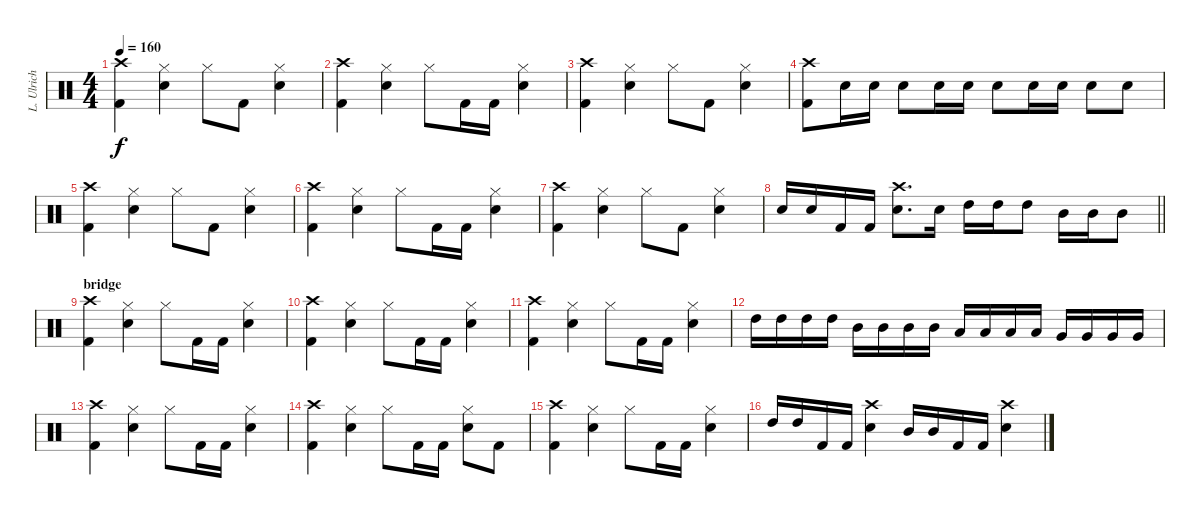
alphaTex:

\track ("L. Ulrich - Drums" "L. Ulrich ") {instrument percussion}
\staff {score}
\articulation defaults
\ts (4 4)
\tempo 160
\clef neutral
\ks c
("Crash high (hit)" "Kick (hit) 2").4{dy f} ("Hi-Hat (closed)" "Snare (hit) 2").4 "Hi-Hat (closed)".8 "Kick (hit) 2".8 ("Hi-Hat (closed)" "Snare (hit) 2").4 |
("Crash high (hit)" "Kick (hit) 2").4 ("Hi-Hat (closed)" "Snare (hit) 2").4 "Hi-Hat (closed)".8 "Kick (hit) 2".16 "Kick (hit) 2".16 ("Hi-Hat (closed)" "Snare (hit) 2").4 |
("Crash high (hit)" "Kick (hit) 2").4 ("Hi-Hat (closed)" "Snare (hit) 2").4 "Hi-Hat (closed)".8 "Kick (hit) 2".8 ("Hi-Hat (closed)" "Snare (hit) 2").4 |
("Crash high (hit)" "Kick (hit) 2").8 "Snare (hit) 2".16 "Snare (hit) 2".16 "Snare (hit) 2".8 "Snare (hit) 2".16 "Snare (hit) 2".16 "Snare (hit) 2".8 "Snare (hit) 2".16 "Snare (hit) 2".16 "Snare (hit) 2".8 "Snare (hit) 2".8 |
("Crash high (hit)" "Kick (hit) 2").4 ("Hi-Hat (closed)" "Snare (hit) 2").4 "Hi-Hat (closed)".8 "Kick (hit) 2".8 ("Hi-Hat (closed)" "Snare (hit) 2").4 |
("Crash high (hit)" "Kick (hit) 2").4 ("Hi-Hat (closed)" "Snare (hit) 2").4 "Hi-Hat (closed)".8 "Kick (hit) 2".16 "Kick (hit) 2".16 ("Hi-Hat (closed)" "Snare (hit) 2").4 |
("Crash high (hit)" "Kick (hit) 2").4 ("Hi-Hat (closed)" "Snare (hit) 2").4 "Hi-Hat (closed)".8 "Kick (hit) 2".8 ("Hi-Hat (closed)" "Snare (hit) 2").4 |
\barLineRight lightlight "Snare (hit) 2".16 "Snare (hit) 2".16 "Kick (hit) 2".16 "Kick (hit) 2".16
("Crash high (hit)" "Snare (hit) 2").8{d} "Snare (hit) 2".16 "High Tom (hit)".16 "High Tom (hit)".16 "High Tom (hit)".8 "Mid Tom (hit)".16 "Mid Tom (hit)".16 "Mid Tom (hit)".8 |
\section ("" "bridge")
("Crash high (hit)" "Kick (hit) 2").4 ("Hi-Hat (closed)" "Snare (hit) 2").4 "Hi-Hat (closed)".8 "Kick (hit) 2".16 "Kick (hit) 2".16 ("Hi-Hat (closed)" "Snare (hit) 2").4 |
("Crash high (hit)" "Kick (hit) 2").4 ("Hi-Hat (closed)" "Snare (hit) 2").4 "Hi-Hat (closed)".8 "Kick (hit) 2".16 "Kick (hit) 2".16 ("Hi-Hat (closed)" "Snare (hit) 2").4 |
("Crash high (hit)" "Kick (hit) 2").4 ("Hi-Hat (closed)" "Snare (hit) 2").4 "Hi-Hat (closed)".8 "Kick (hit) 2".16 "Kick (hit) 2".16 ("Hi-Hat (closed)" "Snare (hit) 2").4 |
"High Tom (hit)".16 "High Tom (hit)".16 "High Tom (hit)".16 "High Tom (hit)".16 "Mid Tom (hit)".16 "Mid Tom (hit)".16 "Mid Tom (hit)".16 "Mid Tom (hit)".16 "Low Tom (hit)".16 "Low Tom (hit)".16 "Low Tom (hit)".16 "Low Tom (hit)".16 "Very Low Tom (hit)".16 "Very Low Tom (hit)".16 "Very Low Tom (hit)".16 "Very Low Tom (hit)".16 |
("Crash high (hit)" "Kick (hit) 2").4 ("Hi-Hat (closed)" "Snare (hit) 2").4 "Hi-Hat (closed)".8 "Kick (hit) 2".16 "Kick (hit) 2".16 ("Hi-Hat (closed)" "Snare (hit) 2").4 |
("Crash high (hit)" "Kick (hit) 2").4 ("Hi-Hat (closed)" "Snare (hit) 2").4 "Hi-Hat (closed)".8 "Kick (hit) 2".16 "Kick (hit) 2".16 ("Hi-Hat (closed)" "Snare (hit) 2").8 "Kick (hit) 2".8 |
("Crash high (hit)" "Kick (hit) 2").4 ("Hi-Hat (closed)" "Snare (hit) 2").4 "Hi-Hat (closed)".8 "Kick (hit) 2".16 "Kick (hit) 2".16 ("Hi-Hat (closed)" "Snare (hit) 2").4 |
"High Tom (hit)".16 "High Tom (hit)".16 "Kick (hit) 2".16 "Kick (hit) 2".16 ("Crash high (hit)" "Snare (hit) 2").4 "Mid Tom (hit)".16 "Mid Tom (hit)".16 "Kick (hit) 2".16 "Kick (hit) 2".16 ("Crash high (hit)" "Snare (hit) 2").4
